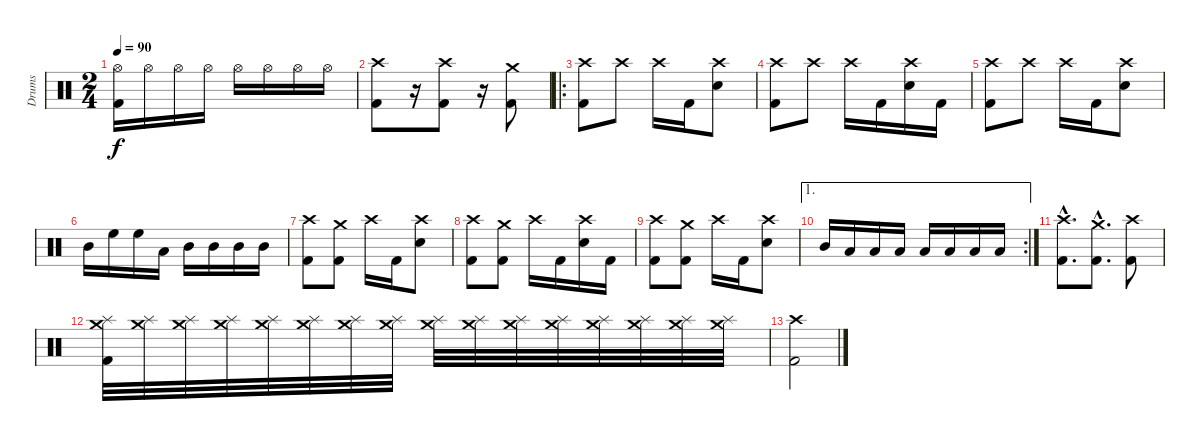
\track ("Drums" "Drums") {instrument percussion}
\staff {score}
\articulation defaults
\ts (2 4)
\tempo 90
\clef neutral
\ks c
("Kick (hit) 2" "Hi-Hat (open)").16{dy f} "Hi-Hat (open)".16 "Hi-Hat (open)".16 "Hi-Hat (open)".16 "Hi-Hat (open)".16 "Hi-Hat (open)".16 "Hi-Hat (open)".16 "Hi-Hat (open)".16 |
("Crash high (hit)" "Kick (hit) 2").8 r.16 ("Crash high (hit)" "Kick (hit) 2").8 r.16 ("Crash medium (hit)" "Kick (hit) 2").8 |
\ro
("Kick (hit) 2" "Crash high (hit)").8 "Crash high (hit)".8 "Crash high (hit)".16 "Kick (hit) 2".16 ("Crash high (hit)" "Snare (hit) 2").8 |
("Kick (hit) 2" "Crash high (hit)").8 "Crash high (hit)".8 "Crash high (hit)".16 "Kick (hit) 2".16 ("Crash high (hit)" "Snare (hit) 2").16 "Kick (hit) 2".16 |
("Kick (hit) 2" "Crash high (hit)").8 "Crash high (hit)".8 "Crash high (hit)".16 "Kick (hit) 2".16 ("Crash high (hit)" "Snare (hit) 2").8 |
"Mid Tom (hit)".16 "High Floor Tom (hit)".16 "High Floor Tom (hit)".16 "Low Tom (hit)".16 "Mid Tom (hit)".16 "Mid Tom (hit)".16 "Mid Tom (hit)".16 "Mid Tom (hit)".16 |
("Kick (hit) 2" "Crash high (hit)").8 ("Crash medium (hit)" "Kick (hit) 2").8 "Crash high (hit)".16 "Kick (hit) 2".16 ("Crash high (hit)" "Snare (hit) 2").8 |
("Kick (hit) 2" "Crash high (hit)").8 ("Crash medium (hit)" "Kick (hit) 2").8 "Crash high (hit)".16 "Kick (hit) 2".16 ("Crash high (hit)" "Snare (hit) 2").16 "Kick (hit) 2".16 |
("Kick (hit) 2" "Crash high (hit)").8 ("Crash medium (hit)" "Kick (hit) 2").8 "Crash high (hit)".16 "Kick (hit) 2".16 ("Crash high (hit)" "Snare (hit) 2").8 |
\ae 1
\rc 2 "Mid Tom (hit)".16 "Low Tom (hit)".16 "Low Tom (hit)".16 "Low Floor Tom (hit)".16 "Low Tom (hit)".16 "Low Tom (hit)".16 "Low Floor Tom (hit)".16 "Low Floor Tom (hit)".16
|
("Crash high (hit)"{hac} "Kick (hit) 2"{hac}).8{d} ("Crash medium (hit)"{hac} "Kick (hit) 2"{hac}).8{d} ("Crash high (hit)" "Kick (hit) 2").8 |
("Crash medium (hit)" "Splash (hit)" "Kick (hit) 2").32 ("Crash medium (hit)" "Splash (hit)").32 ("Splash (hit)" "Crash medium (hit)").32 ("Splash (hit)" "Crash medium (hit)").32 ("Splash (hit)" "Crash medium (hit)").32 ("Splash (hit)" "Crash medium (hit)").32 ("Splash (hit)" "Crash medium (hit)").32 ("Splash (hit)" "Crash medium (hit)").32 ("Splash (hit)" "Crash medium (hit)").32 ("Splash (hit)" "Crash medium (hit)").32 ("Splash (hit)" "Crash medium (hit)").32 ("Splash (hit)" "Crash medium (hit)").32 ("Splash (hit)" "Crash medium (hit)").32 ("Splash (hit)" "Crash medium (hit)").32 ("Splash (hit)" "Crash medium (hit)").32 ("Splash (hit)" "Crash medium (hit)").32 |
("Crash high (hit)" "Kick (hit) 2").2
